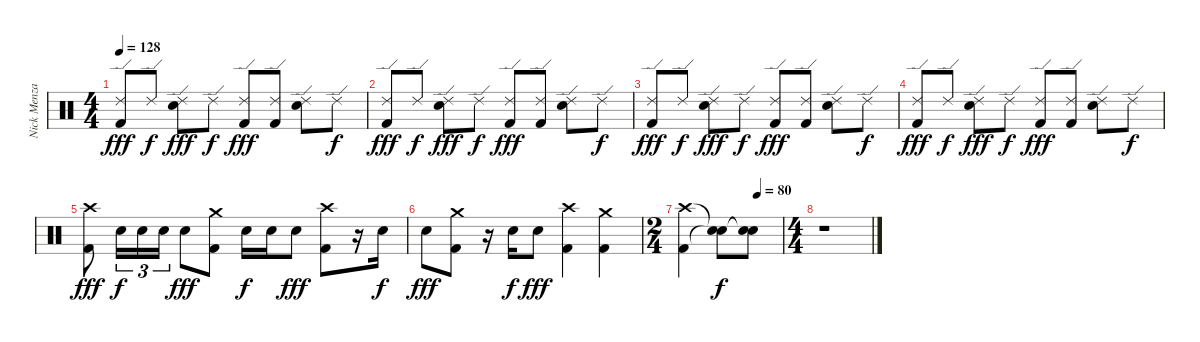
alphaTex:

\track ("Nick Menza" "Nick Menza") {instrument percussion}
\staff {score}
\articulation defaults
\ts (4 4)
\tempo 128
\clef neutral
\ks c
("Ride (edge) 2" "Kick (hit) 2").8{dy fff} "Ride (edge) 2".8{dy f} ("Ride (edge) 2" "Electric Snare (hit)").8{dy fff} "Ride (edge) 2".8{dy f} ("Ride (edge) 2" "Kick (hit) 2").8{dy fff} ("Ride (edge) 2" "Kick (hit) 2").8 ("Ride (edge) 2" "Electric Snare (hit)").8 "Ride (edge) 2".8{dy f} |
("Ride (edge) 2" "Kick (hit) 2").8{dy fff} "Ride (edge) 2".8{dy f} ("Ride (edge) 2" "Electric Snare (hit)").8{dy fff} "Ride (edge) 2".8{dy f} ("Ride (edge) 2" "Kick (hit) 2").8{dy fff} ("Ride (edge) 2" "Kick (hit) 2").8 ("Ride (edge) 2" "Electric Snare (hit)").8 "Ride (edge) 2".8{dy f} |
("Ride (edge) 2" "Kick (hit) 2").8{dy fff} "Ride (edge) 2".8{dy f} ("Ride (edge) 2" "Electric Snare (hit)").8{dy fff} "Ride (edge) 2".8{dy f} ("Ride (edge) 2" "Kick (hit) 2").8{dy fff} ("Ride (edge) 2" "Kick (hit) 2").8 ("Ride (edge) 2" "Electric Snare (hit)").8 "Ride (edge) 2".8{dy f} |
("Ride (edge) 2" "Kick (hit) 2").8{dy fff} "Ride (edge) 2".8{dy f} ("Ride (edge) 2" "Electric Snare (hit)").8{dy fff} "Ride (edge) 2".8{dy f} ("Ride (edge) 2" "Kick (hit) 2").8{dy fff} ("Ride (edge) 2" "Kick (hit) 2").8 ("Ride (edge) 2" "Electric Snare (hit)").8 "Ride (edge) 2".8{dy f} |
("Crash high (hit)" "Kick (hit) 2").8{dy fff} "Electric Snare (hit)".16{tu (3 2) dy f} "Electric Snare (hit)".16{tu (3 2)} "Electric Snare (hit)".16{tu (3 2)} "Electric Snare (hit)".8{dy fff} ("Crash medium (hit)" "Kick (hit) 2").8 "Electric Snare (hit)".16{dy f} "Electric Snare (hit)".16 "Electric Snare (hit)".8{dy fff} ("Crash high (hit)" "Kick (hit) 2").8 r.16 "Electric Snare (hit)".16{dy f} |
"Electric Snare (hit)".8{dy fff} ("Crash medium (hit)" "Kick (hit) 2").8 r.16 "Electric Snare (hit)".16{dy f} "Electric Snare (hit)".8{dy fff} ("Crash high (hit)" "Kick (hit) 2").4 ("Crash medium (hit)" "Kick (hit) 2").4 |
\ts (2 4)
\tempo (80 0.75)
("Crash high (hit)" "Kick (hit) 2").4 ("Snare (hit)"{t} "Snare (hit)"{t}).8{dy f} ("Snare (hit)"{t} "Snare (hit)"{t}).8 |
\ts (4 4)
r.1
